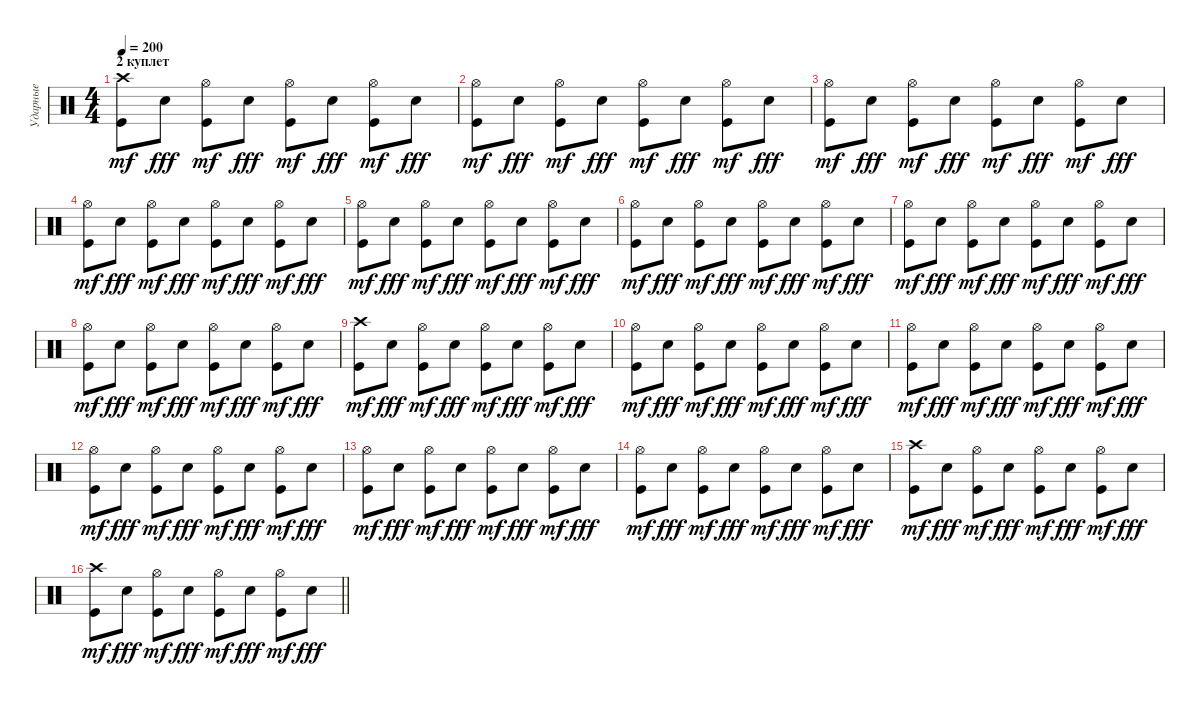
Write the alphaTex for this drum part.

\track ("Ударные" "Ударные") {instrument percussion}
\staff {score}
\articulation defaults
\ts (4 4)
\section ("" "2 куплет")
\tempo 200
\clef neutral
\ks c
("Kick (hit)" "Crash high (hit)").8{dy mf} "Electric Snare (hit)".8{dy fff} ("Kick (hit)" "Hi-Hat (open)").8{dy mf} "Electric Snare (hit)".8{dy fff} ("Kick (hit)" "Hi-Hat (open)").8{dy mf} "Electric Snare (hit)".8{dy fff} ("Kick (hit)" "Hi-Hat (open)").8{dy mf} "Electric Snare (hit)".8{dy fff} |
("Kick (hit)" "Hi-Hat (open)").8{dy mf} "Electric Snare (hit)".8{dy fff} ("Kick (hit)" "Hi-Hat (open)").8{dy mf} "Electric Snare (hit)".8{dy fff} ("Kick (hit)" "Hi-Hat (open)").8{dy mf} "Electric Snare (hit)".8{dy fff} ("Kick (hit)" "Hi-Hat (open)").8{dy mf} "Electric Snare (hit)".8{dy fff} |
("Kick (hit)" "Hi-Hat (open)").8{dy mf} "Electric Snare (hit)".8{dy fff} ("Kick (hit)" "Hi-Hat (open)").8{dy mf} "Electric Snare (hit)".8{dy fff} ("Kick (hit)" "Hi-Hat (open)").8{dy mf} "Electric Snare (hit)".8{dy fff} ("Kick (hit)" "Hi-Hat (open)").8{dy mf} "Electric Snare (hit)".8{dy fff} |
("Kick (hit)" "Hi-Hat (open)").8{dy mf} "Electric Snare (hit)".8{dy fff} ("Kick (hit)" "Hi-Hat (open)").8{dy mf} "Electric Snare (hit)".8{dy fff} ("Kick (hit)" "Hi-Hat (open)").8{dy mf} "Electric Snare (hit)".8{dy fff} ("Kick (hit)" "Hi-Hat (open)").8{dy mf} "Electric Snare (hit)".8{dy fff} |
("Kick (hit)" "Hi-Hat (open)").8{dy mf} "Electric Snare (hit)".8{dy fff} ("Kick (hit)" "Hi-Hat (open)").8{dy mf} "Electric Snare (hit)".8{dy fff} ("Kick (hit)" "Hi-Hat (open)").8{dy mf} "Electric Snare (hit)".8{dy fff} ("Kick (hit)" "Hi-Hat (open)").8{dy mf} "Electric Snare (hit)".8{dy fff} |
("Kick (hit)" "Hi-Hat (open)").8{dy mf} "Electric Snare (hit)".8{dy fff} ("Kick (hit)" "Hi-Hat (open)").8{dy mf} "Electric Snare (hit)".8{dy fff} ("Kick (hit)" "Hi-Hat (open)").8{dy mf} "Electric Snare (hit)".8{dy fff} ("Kick (hit)" "Hi-Hat (open)").8{dy mf} "Electric Snare (hit)".8{dy fff} |
("Kick (hit)" "Hi-Hat (open)").8{dy mf} "Electric Snare (hit)".8{dy fff} ("Kick (hit)" "Hi-Hat (open)").8{dy mf} "Electric Snare (hit)".8{dy fff} ("Kick (hit)" "Hi-Hat (open)").8{dy mf} "Electric Snare (hit)".8{dy fff} ("Kick (hit)" "Hi-Hat (open)").8{dy mf} "Electric Snare (hit)".8{dy fff} |
("Kick (hit)" "Hi-Hat (open)").8{dy mf} "Electric Snare (hit)".8{dy fff} ("Kick (hit)" "Hi-Hat (open)").8{dy mf} "Electric Snare (hit)".8{dy fff} ("Kick (hit)" "Hi-Hat (open)").8{dy mf} "Electric Snare (hit)".8{dy fff} ("Kick (hit)" "Hi-Hat (open)").8{dy mf} "Electric Snare (hit)".8{dy fff} |
("Kick (hit)" "Crash high (hit)").8{dy mf} "Electric Snare (hit)".8{dy fff} ("Kick (hit)" "Hi-Hat (open)").8{dy mf} "Electric Snare (hit)".8{dy fff} ("Kick (hit)" "Hi-Hat (open)").8{dy mf} "Electric Snare (hit)".8{dy fff} ("Kick (hit)" "Hi-Hat (open)").8{dy mf} "Electric Snare (hit)".8{dy fff} |
("Kick (hit)" "Hi-Hat (open)").8{dy mf} "Electric Snare (hit)".8{dy fff} ("Kick (hit)" "Hi-Hat (open)").8{dy mf} "Electric Snare (hit)".8{dy fff} ("Kick (hit)" "Hi-Hat (open)").8{dy mf} "Electric Snare (hit)".8{dy fff} ("Kick (hit)" "Hi-Hat (open)").8{dy mf} "Electric Snare (hit)".8{dy fff} |
("Kick (hit)" "Hi-Hat (open)").8{dy mf} "Electric Snare (hit)".8{dy fff} ("Kick (hit)" "Hi-Hat (open)").8{dy mf} "Electric Snare (hit)".8{dy fff} ("Kick (hit)" "Hi-Hat (open)").8{dy mf} "Electric Snare (hit)".8{dy fff} ("Kick (hit)" "Hi-Hat (open)").8{dy mf} "Electric Snare (hit)".8{dy fff} |
("Kick (hit)" "Hi-Hat (open)").8{dy mf} "Electric Snare (hit)".8{dy fff} ("Kick (hit)" "Hi-Hat (open)").8{dy mf} "Electric Snare (hit)".8{dy fff} ("Kick (hit)" "Hi-Hat (open)").8{dy mf} "Electric Snare (hit)".8{dy fff} ("Kick (hit)" "Hi-Hat (open)").8{dy mf} "Electric Snare (hit)".8{dy fff} |
("Kick (hit)" "Hi-Hat (open)").8{dy mf} "Electric Snare (hit)".8{dy fff} ("Kick (hit)" "Hi-Hat (open)").8{dy mf} "Electric Snare (hit)".8{dy fff} ("Kick (hit)" "Hi-Hat (open)").8{dy mf} "Electric Snare (hit)".8{dy fff} ("Kick (hit)" "Hi-Hat (open)").8{dy mf} "Electric Snare (hit)".8{dy fff} |
("Kick (hit)" "Hi-Hat (open)").8{dy mf} "Electric Snare (hit)".8{dy fff} ("Kick (hit)" "Hi-Hat (open)").8{dy mf} "Electric Snare (hit)".8{dy fff} ("Kick (hit)" "Hi-Hat (open)").8{dy mf} "Electric Snare (hit)".8{dy fff} ("Kick (hit)" "Hi-Hat (open)").8{dy mf} "Electric Snare (hit)".8{dy fff} |
("Kick (hit)" "Crash high (hit)").8{dy mf} "Electric Snare (hit)".8{dy fff} ("Kick (hit)" "Hi-Hat (open)").8{dy mf} "Electric Snare (hit)".8{dy fff} ("Kick (hit)" "Hi-Hat (open)").8{dy mf} "Electric Snare (hit)".8{dy fff} ("Kick (hit)" "Hi-Hat (open)").8{dy mf} "Electric Snare (hit)".8{dy fff} |
\barLineRight lightlight
("Kick (hit)" "Crash high (hit)").8{dy mf} "Electric Snare (hit)".8{dy fff} ("Kick (hit)" "Hi-Hat (open)").8{dy mf} "Electric Snare (hit)".8{dy fff} ("Kick (hit)" "Hi-Hat (open)").8{dy mf} "Electric Snare (hit)".8{dy fff} ("Kick (hit)" "Hi-Hat (open)").8{dy mf} "Electric Snare (hit)".8{dy fff}
